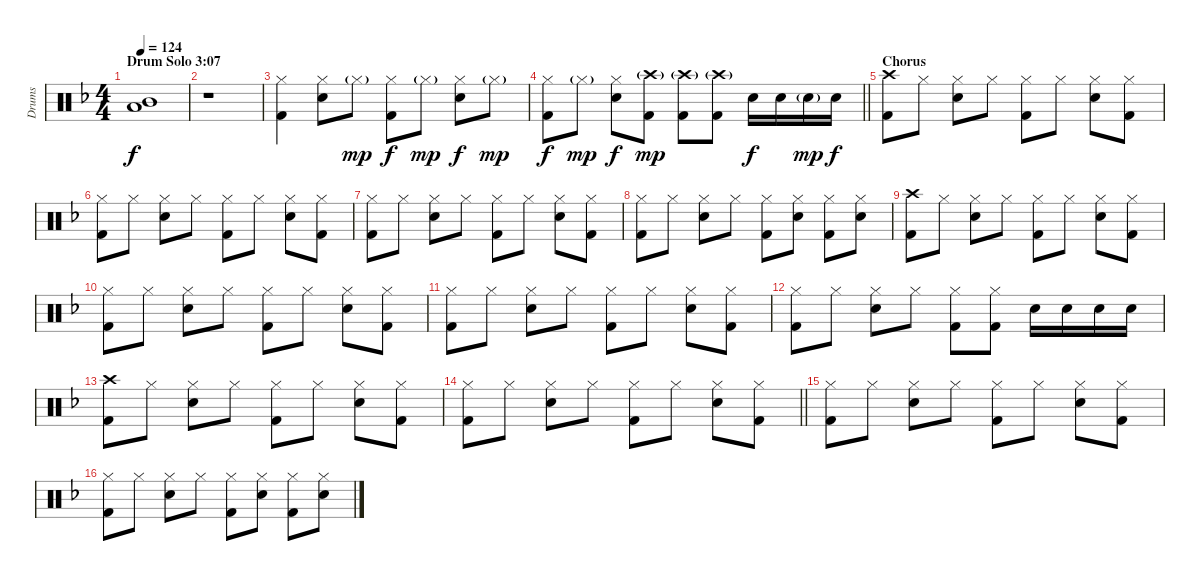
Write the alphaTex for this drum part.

\track ("Drums" "Drums") {instrument percussion}
\staff {score}
\articulation defaults
\ts (4 4)
\section ("" "Drum Solo 3:07")
\tempo 124
\clef neutral
\ks f
("Low Tom (hit)" "Mid Tom (hit)").1{dy f} |
r.1 |
("Hi-Hat (closed)" "Kick (hit) 2").4 ("Hi-Hat (closed)" "Snare (hit) 2").8 "Hi-Hat (closed)"{g}.8{dy mp} ("Hi-Hat (closed)" "Kick (hit) 2").8{dy f} "Hi-Hat (closed)"{g}.8{dy mp} ("Hi-Hat (closed)" "Snare (hit) 2").8{dy f} "Hi-Hat (closed)"{g}.8{dy mp} |
\barLineRight lightlight
("Hi-Hat (closed)" "Kick (hit) 2").8{dy f} "Hi-Hat (closed)"{g}.8{dy mp} ("Hi-Hat (closed)" "Snare (hit) 2").8{dy f} ("Crash high (hit)"{g} "Kick (hit) 2").8{dy mp} ("Crash high (hit)"{g} "Kick (hit) 2").8 ("Crash high (hit)"{g} "Kick (hit) 2").8 "Snare (hit) 2".16{dy f} "Snare (hit) 2".16 "Snare (hit) 2"{g}.16{dy mp} "Snare (hit) 2".16{dy f} |
\section ("" "Chorus")
("Crash high (hit)" "Kick (hit) 2").8 "Hi-Hat (closed)".8 ("Hi-Hat (closed)" "Snare (hit) 2").8 "Hi-Hat (closed)".8 ("Hi-Hat (closed)" "Kick (hit) 2").8 "Hi-Hat (closed)".8 ("Hi-Hat (closed)" "Snare (hit) 2").8 ("Hi-Hat (closed)" "Kick (hit) 2").8 |
("Hi-Hat (closed)" "Kick (hit) 2").8 "Hi-Hat (closed)".8 ("Hi-Hat (closed)" "Snare (hit) 2").8 "Hi-Hat (closed)".8 ("Hi-Hat (closed)" "Kick (hit) 2").8 "Hi-Hat (closed)".8 ("Hi-Hat (closed)" "Snare (hit) 2").8 ("Hi-Hat (closed)" "Kick (hit) 2").8 |
("Hi-Hat (closed)" "Kick (hit) 2").8 "Hi-Hat (closed)".8 ("Hi-Hat (closed)" "Snare (hit) 2").8 "Hi-Hat (closed)".8 ("Hi-Hat (closed)" "Kick (hit) 2").8 "Hi-Hat (closed)".8 ("Hi-Hat (closed)" "Snare (hit) 2").8 ("Hi-Hat (closed)" "Kick (hit) 2").8 |
("Hi-Hat (closed)" "Kick (hit) 2").8 "Hi-Hat (closed)".8 ("Hi-Hat (closed)" "Snare (hit) 2").8 "Hi-Hat (closed)".8 ("Hi-Hat (closed)" "Kick (hit) 2").8 ("Hi-Hat (closed)" "Snare (hit) 2").8 ("Hi-Hat (closed)" "Kick (hit) 2").8 ("Hi-Hat (closed)" "Snare (hit) 2").8 |
("Crash high (hit)" "Kick (hit) 2").8 "Hi-Hat (closed)".8 ("Hi-Hat (closed)" "Snare (hit) 2").8 "Hi-Hat (closed)".8 ("Hi-Hat (closed)" "Kick (hit) 2").8 "Hi-Hat (closed)".8 ("Hi-Hat (closed)" "Snare (hit) 2").8 ("Hi-Hat (closed)" "Kick (hit) 2").8 |
("Hi-Hat (closed)" "Kick (hit) 2").8 "Hi-Hat (closed)".8 ("Hi-Hat (closed)" "Snare (hit) 2").8 "Hi-Hat (closed)".8 ("Hi-Hat (closed)" "Kick (hit) 2").8 "Hi-Hat (closed)".8 ("Hi-Hat (closed)" "Snare (hit) 2").8 ("Hi-Hat (closed)" "Kick (hit) 2").8 |
("Hi-Hat (closed)" "Kick (hit) 2").8 "Hi-Hat (closed)".8 ("Hi-Hat (closed)" "Snare (hit) 2").8 "Hi-Hat (closed)".8 ("Hi-Hat (closed)" "Kick (hit) 2").8 "Hi-Hat (closed)".8 ("Hi-Hat (closed)" "Snare (hit) 2").8 ("Hi-Hat (closed)" "Kick (hit) 2").8 |
("Hi-Hat (closed)" "Kick (hit) 2").8 "Hi-Hat (closed)".8 ("Hi-Hat (closed)" "Snare (hit) 2").8 "Hi-Hat (closed)".8 ("Hi-Hat (closed)" "Kick (hit) 2").8 ("Hi-Hat (closed)" "Kick (hit) 2").8 "Snare (hit) 2".16 "Snare (hit) 2".16 "Snare (hit) 2".16 "Snare (hit) 2".16 |
("Crash high (hit)" "Kick (hit) 2").8 "Hi-Hat (closed)".8 ("Hi-Hat (closed)" "Snare (hit) 2").8 "Hi-Hat (closed)".8 ("Hi-Hat (closed)" "Kick (hit) 2").8 "Hi-Hat (closed)".8 ("Hi-Hat (closed)" "Snare (hit) 2").8 ("Hi-Hat (closed)" "Kick (hit) 2").8 |
\barLineRight lightlight
("Hi-Hat (closed)" "Kick (hit) 2").8 "Hi-Hat (closed)".8 ("Hi-Hat (closed)" "Snare (hit) 2").8 "Hi-Hat (closed)".8 ("Hi-Hat (closed)" "Kick (hit) 2").8 "Hi-Hat (closed)".8 ("Hi-Hat (closed)" "Snare (hit) 2").8 ("Hi-Hat (closed)" "Kick (hit) 2").8 |
("Hi-Hat (closed)" "Kick (hit) 2").8 "Hi-Hat (closed)".8 ("Hi-Hat (closed)" "Snare (hit) 2").8 "Hi-Hat (closed)".8 ("Hi-Hat (closed)" "Kick (hit) 2").8 "Hi-Hat (closed)".8 ("Hi-Hat (closed)" "Snare (hit) 2").8 ("Hi-Hat (closed)" "Kick (hit) 2").8 |
("Hi-Hat (closed)" "Kick (hit) 2").8 "Hi-Hat (closed)".8 ("Hi-Hat (closed)" "Snare (hit) 2").8 "Hi-Hat (closed)".8 ("Hi-Hat (closed)" "Kick (hit) 2").8 ("Hi-Hat (closed)" "Snare (hit) 2").8 ("Hi-Hat (closed)" "Kick (hit) 2").8 ("Hi-Hat (closed)" "Snare (hit) 2").8
